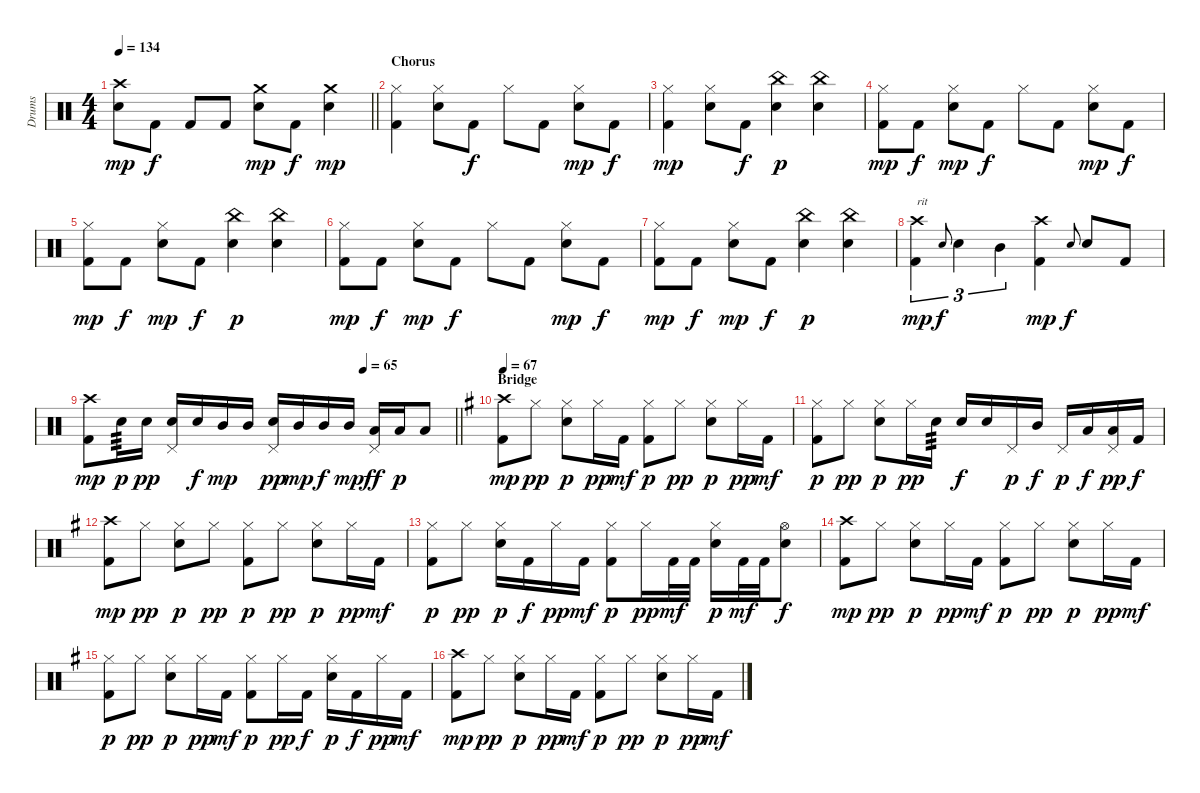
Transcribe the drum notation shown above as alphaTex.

\track ("Drums" "Drums") {instrument percussion}
\staff {score}
\articulation defaults
\ts (4 4)
\tempo 134
\clef neutral
\barLineRight lightlight
\ks aminor
("Electric Snare (hit)" "Crash high (hit)").8{dy mp} "Kick (hit) 2".8{dy f} "Kick (hit) 2".8 "Kick (hit) 2".8 ("Electric Snare (hit)" "Crash medium (hit)").8{dy mp} "Kick (hit) 2".8{dy f} ("Electric Snare (hit)" "Crash medium (hit)").4{dy mp} |
\section ("" "Chorus")
("Kick (hit) 2" "Hi-Hat (closed)").4 ("Electric Snare (hit)" "Hi-Hat (closed)").8 "Kick (hit) 2".8{dy f} "Hi-Hat (closed)".8 "Kick (hit) 2".8 ("Electric Snare (hit)" "Hi-Hat (closed)").8{dy mp} "Kick (hit) 2".8{dy f} |
("Kick (hit) 2" "Hi-Hat (closed)").4{dy mp} ("Electric Snare (hit)" "Hi-Hat (closed)").8 "Kick (hit) 2".8{dy f} ("Electric Snare (hit)" "China (hit)").4{dy p} ("Electric Snare (hit)" "China (hit)").4 |
("Kick (hit) 2" "Hi-Hat (closed)").8{dy mp} "Kick (hit) 2".8{dy f} ("Electric Snare (hit)" "Hi-Hat (closed)").8{dy mp} "Kick (hit) 2".8{dy f} "Hi-Hat (closed)".8 "Kick (hit) 2".8 ("Electric Snare (hit)" "Hi-Hat (closed)").8{dy mp} "Kick (hit) 2".8{dy f} |
("Kick (hit) 2" "Hi-Hat (closed)").8{dy mp} "Kick (hit) 2".8{dy f} ("Electric Snare (hit)" "Hi-Hat (closed)").8{dy mp} "Kick (hit) 2".8{dy f} ("Electric Snare (hit)" "China (hit)").4{dy p} ("Electric Snare (hit)" "China (hit)").4 |
("Kick (hit) 2" "Hi-Hat (closed)").8{dy mp} "Kick (hit) 2".8{dy f} ("Electric Snare (hit)" "Hi-Hat (closed)").8{dy mp} "Kick (hit) 2".8{dy f} "Hi-Hat (closed)".8 "Kick (hit) 2".8 ("Electric Snare (hit)" "Hi-Hat (closed)").8{dy mp} "Kick (hit) 2".8{dy f} |
("Kick (hit) 2" "Hi-Hat (closed)").8{dy mp} "Kick (hit) 2".8{dy f} ("Electric Snare (hit)" "Hi-Hat (closed)").8{dy mp} "Kick (hit) 2".8{dy f} ("Electric Snare (hit)" "China (hit)").4{dy p} ("Electric Snare (hit)" "China (hit)").4 |
("Kick (hit) 2" "Crash high (hit)").4{tu (3 2) txt "rit" dy mp} "Electric Snare (hit)".8{gr onbeat dy f} "Electric Snare (hit)".4{tu (3 2)} "Mid Tom (hit)".4{tu (3 2)} ("Kick (hit) 2" "Crash high (hit)").4{dy mp} "Electric Snare (hit)".8{gr onbeat dy f} "Electric Snare (hit)".8 "Kick (hit) 2".8 |
\tempo (65 0.75)
\barLineRight lightlight
("Kick (hit) 2" "Crash high (hit)").8{dy mp} "Electric Snare (hit)".16{tp 3 dy p} "Electric Snare (hit)".16{dy pp} ("Electric Snare (hit)" "Pedal Hi-Hat (hit)").16 "Electric Snare (hit)".16{dy f} "Mid Tom (hit)".16{dy mp} "Mid Tom (hit)".16 ("Electric Snare (hit)" "Pedal Hi-Hat (hit)").16{dy pp} "Mid Tom (hit)".16{dy mp} "Mid Tom (hit)".16{dy f} "Mid Tom (hit)".16{dy mp} ("Pedal Hi-Hat (hit)" "Low Tom (hit)").16{dy ff} "Low Tom (hit)".16{dy p} "Low Tom (hit)".8 |
\section ("" "Bridge")
\tempo 67
\ks eminor
("Crash high (hit)" "Kick (hit) 2").8{dy mp} "Hi-Hat (closed)".8{dy pp} ("Hi-Hat (closed)" "Electric Snare (hit)").8{dy p} "Hi-Hat (closed)".16{dy pp} "Kick (hit) 2".16{dy mf} ("Hi-Hat (closed)" "Kick (hit) 2").8{dy p} "Hi-Hat (closed)".8{dy pp} ("Hi-Hat (closed)" "Electric Snare (hit)").8{dy p} "Hi-Hat (closed)".16{dy pp} "Kick (hit) 2".16{dy mf} |
("Kick (hit) 2" "Hi-Hat (closed)").8{dy p} "Hi-Hat (closed)".8{dy pp} ("Electric Snare (hit)" "Hi-Hat (closed)").8{dy p} "Hi-Hat (closed)".16{dy pp} "Electric Snare (hit)".16{tp 3} "Electric Snare (hit)".16{dy f} "Electric Snare (hit)".16 "Pedal Hi-Hat (hit)".16{dy p} "Mid Tom (hit)".16{dy f} "Pedal Hi-Hat (hit)".16{dy p} "Low Tom (hit)".16{dy f} ("Pedal Hi-Hat (hit)" "Low Tom (hit)").16{dy pp} "Kick (hit) 2".16{dy f} |
("Crash high (hit)" "Kick (hit) 2").8{dy mp} "Hi-Hat (closed)".8{dy pp} ("Hi-Hat (closed)" "Electric Snare (hit)").8{dy p} "Hi-Hat (closed)".8{dy pp} ("Hi-Hat (closed)" "Kick (hit) 2").8{dy p} "Hi-Hat (closed)".8{dy pp} ("Hi-Hat (closed)" "Electric Snare (hit)").8{dy p} "Hi-Hat (closed)".16{dy pp} "Kick (hit) 2".16{dy mf} |
("Hi-Hat (closed)" "Kick (hit) 2").8{dy p} "Hi-Hat (closed)".8{dy pp} ("Hi-Hat (closed)" "Electric Snare (hit)").16{dy p} "Kick (hit) 2".16{dy f} "Hi-Hat (closed)".16{dy pp} "Kick (hit) 2".16{dy mf} ("Hi-Hat (closed)" "Kick (hit) 2").8{dy p} "Hi-Hat (closed)".16{dy pp} "Kick (hit) 2".32{dy mf} "Kick (hit) 2".32 ("Hi-Hat (closed)" "Electric Snare (hit)").16{dy p} "Kick (hit) 2".32{dy mf} "Kick (hit) 2".32 ("Hi-Hat (open)" "Electric Snare (hit)").8{dy f} |
("Crash high (hit)" "Kick (hit) 2").8{dy mp} "Hi-Hat (closed)".8{dy pp} ("Hi-Hat (closed)" "Electric Snare (hit)").8{dy p} "Hi-Hat (closed)".16{dy pp} "Kick (hit) 2".16{dy mf} ("Hi-Hat (closed)" "Kick (hit) 2").8{dy p} "Hi-Hat (closed)".8{dy pp} ("Hi-Hat (closed)" "Electric Snare (hit)").8{dy p} "Hi-Hat (closed)".16{dy pp} "Kick (hit) 2".16{dy mf} |
("Hi-Hat (closed)" "Kick (hit) 2").8{dy p} "Hi-Hat (closed)".8{dy pp} ("Hi-Hat (closed)" "Electric Snare (hit)").8{dy p} "Hi-Hat (closed)".16{dy pp} "Kick (hit) 2".16{dy mf} ("Hi-Hat (closed)" "Kick (hit) 2").8{dy p} "Hi-Hat (closed)".16{dy pp} "Kick (hit) 2".16{dy f} ("Hi-Hat (closed)" "Electric Snare (hit)").16{dy p} "Kick (hit) 2".16{dy f} "Hi-Hat (closed)".16{dy pp} "Kick (hit) 2".16{dy mf} |
("Crash high (hit)" "Kick (hit) 2").8{dy mp} "Hi-Hat (closed)".8{dy pp} ("Hi-Hat (closed)" "Electric Snare (hit)").8{dy p} "Hi-Hat (closed)".16{dy pp} "Kick (hit) 2".16{dy mf} ("Hi-Hat (closed)" "Kick (hit) 2").8{dy p} "Hi-Hat (closed)".8{dy pp} ("Hi-Hat (closed)" "Electric Snare (hit)").8{dy p} "Hi-Hat (closed)".16{dy pp} "Kick (hit) 2".16{dy mf}
